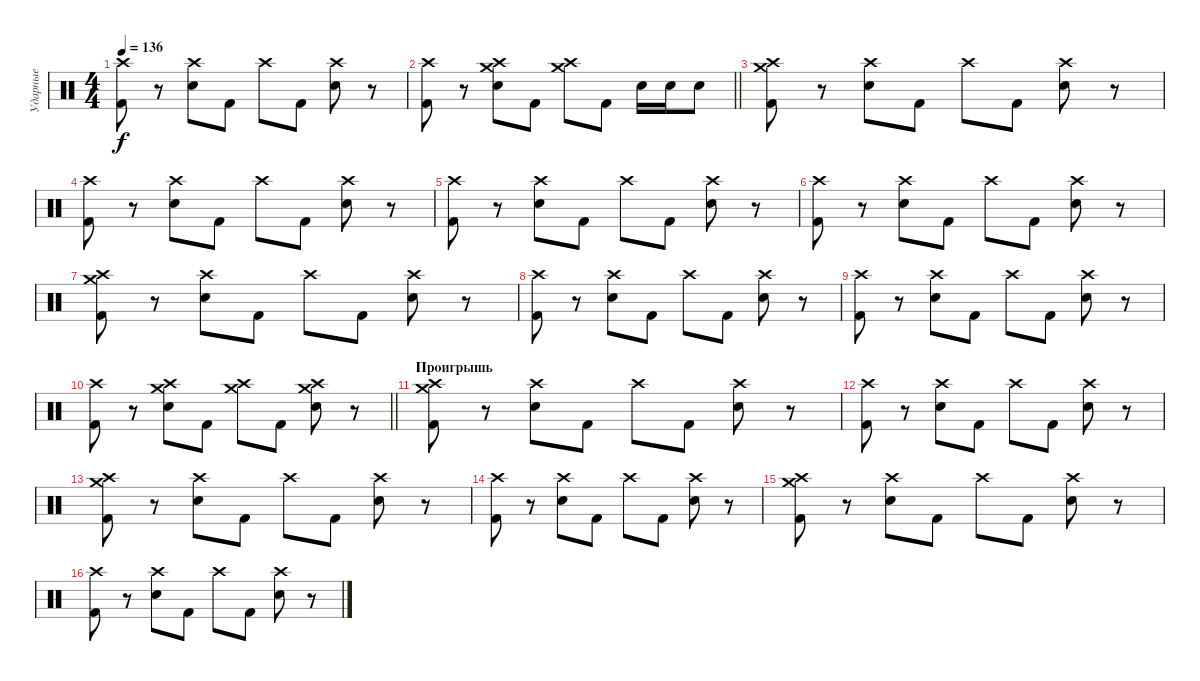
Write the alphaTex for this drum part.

\track ("Ударные" "Ударные") {instrument percussion}
\staff {score}
\articulation defaults
\ts (4 4)
\tempo 136
\clef neutral
\ks c
("Crash high (hit)" "Kick (hit) 2").8{dy f} r.8 ("Crash high (hit)" "Electric Snare (hit)").8 "Kick (hit) 2".8 "Crash high (hit)".8 "Kick (hit) 2".8 ("Crash high (hit)" "Electric Snare (hit)").8 r.8 |
\barLineRight lightlight
("Crash high (hit)" "Kick (hit) 2").8 r.8 ("Crash high (hit)" "Crash medium (hit)" "Electric Snare (hit)").8 "Kick (hit) 2".8 ("Crash high (hit)" "Crash medium (hit)").8 "Kick (hit) 2".8 "Electric Snare (hit)".16 "Electric Snare (hit)".16 "Electric Snare (hit)".8 |
("Crash high (hit)" "Crash medium (hit)" "Kick (hit) 2").8 r.8 ("Crash high (hit)" "Electric Snare (hit)").8 "Kick (hit) 2".8 "Crash high (hit)".8 "Kick (hit) 2".8 ("Crash high (hit)" "Electric Snare (hit)").8 r.8 |
("Crash high (hit)" "Kick (hit) 2").8 r.8 ("Crash high (hit)" "Electric Snare (hit)").8 "Kick (hit) 2".8 "Crash high (hit)".8 "Kick (hit) 2".8 ("Crash high (hit)" "Electric Snare (hit)").8 r.8 |
("Crash high (hit)" "Kick (hit) 2").8 r.8 ("Crash high (hit)" "Electric Snare (hit)").8 "Kick (hit) 2".8 "Crash high (hit)".8 "Kick (hit) 2".8 ("Crash high (hit)" "Electric Snare (hit)").8 r.8 |
("Crash high (hit)" "Kick (hit) 2").8 r.8 ("Crash high (hit)" "Electric Snare (hit)").8 "Kick (hit) 2".8 "Crash high (hit)".8 "Kick (hit) 2".8 ("Crash high (hit)" "Electric Snare (hit)").8 r.8 |
("Crash high (hit)" "Crash medium (hit)" "Kick (hit) 2").8 r.8 ("Crash high (hit)" "Electric Snare (hit)").8 "Kick (hit) 2".8 "Crash high (hit)".8 "Kick (hit) 2".8 ("Crash high (hit)" "Electric Snare (hit)").8 r.8 |
("Crash high (hit)" "Kick (hit) 2").8 r.8 ("Crash high (hit)" "Electric Snare (hit)").8 "Kick (hit) 2".8 "Crash high (hit)".8 "Kick (hit) 2".8 ("Crash high (hit)" "Electric Snare (hit)").8 r.8 |
("Crash high (hit)" "Kick (hit) 2").8 r.8 ("Crash high (hit)" "Electric Snare (hit)").8 "Kick (hit) 2".8 "Crash high (hit)".8 "Kick (hit) 2".8 ("Crash high (hit)" "Electric Snare (hit)").8 r.8 |
\barLineRight lightlight
("Crash high (hit)" "Kick (hit) 2").8 r.8 ("Crash high (hit)" "Crash medium (hit)" "Electric Snare (hit)").8 "Kick (hit) 2".8 ("Crash high (hit)" "Crash medium (hit)").8 "Kick (hit) 2".8 ("Crash high (hit)" "Crash medium (hit)" "Electric Snare (hit)").8 r.8 |
\section ("" "Проигрышь")
("Crash high (hit)" "Crash medium (hit)" "Kick (hit) 2").8 r.8 ("Crash high (hit)" "Electric Snare (hit)").8 "Kick (hit) 2".8 "Crash high (hit)".8 "Kick (hit) 2".8 ("Crash high (hit)" "Electric Snare (hit)").8 r.8 |
("Crash high (hit)" "Kick (hit) 2").8 r.8 ("Crash high (hit)" "Electric Snare (hit)").8 "Kick (hit) 2".8 "Crash high (hit)".8 "Kick (hit) 2".8 ("Crash high (hit)" "Electric Snare (hit)").8 r.8 |
("Crash high (hit)" "Crash medium (hit)" "Kick (hit) 2").8 r.8 ("Crash high (hit)" "Electric Snare (hit)").8 "Kick (hit) 2".8 "Crash high (hit)".8 "Kick (hit) 2".8 ("Crash high (hit)" "Electric Snare (hit)").8 r.8 |
("Crash high (hit)" "Kick (hit) 2").8 r.8 ("Crash high (hit)" "Electric Snare (hit)").8 "Kick (hit) 2".8 "Crash high (hit)".8 "Kick (hit) 2".8 ("Crash high (hit)" "Electric Snare (hit)").8 r.8 |
("Crash high (hit)" "Crash medium (hit)" "Kick (hit) 2").8 r.8 ("Crash high (hit)" "Electric Snare (hit)").8 "Kick (hit) 2".8 "Crash high (hit)".8 "Kick (hit) 2".8 ("Crash high (hit)" "Electric Snare (hit)").8 r.8 |
("Crash high (hit)" "Kick (hit) 2").8 r.8 ("Crash high (hit)" "Electric Snare (hit)").8 "Kick (hit) 2".8 "Crash high (hit)".8 "Kick (hit) 2".8 ("Crash high (hit)" "Electric Snare (hit)").8 r.8
